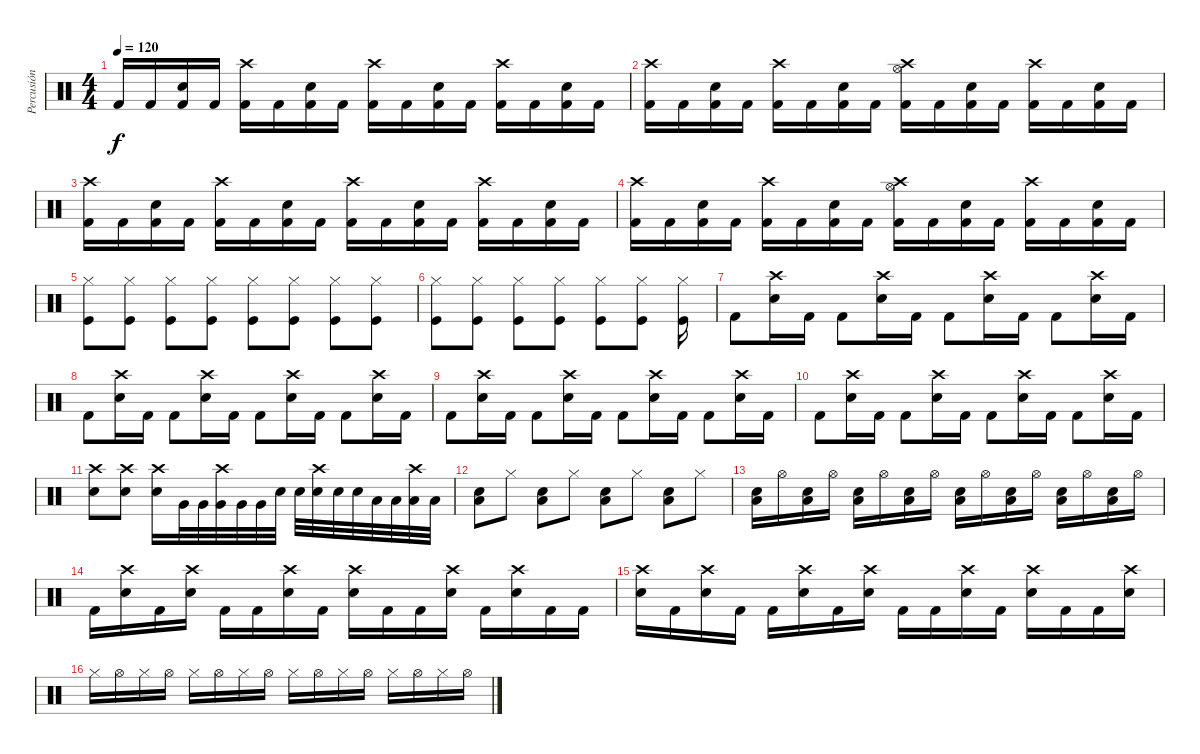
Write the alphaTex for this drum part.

\track ("Percusión" "Percusión") {instrument percussion}
\staff {score}
\articulation defaults
\ts (4 4)
\tempo 120
\clef neutral
\ks c "Kick (hit) 2".16{dy f} "Kick (hit) 2".16
("Kick (hit) 2" "Electric Snare (hit)").16 "Kick (hit) 2".16 ("Kick (hit) 2" "Crash high (hit)").16 "Kick (hit) 2".16 ("Kick (hit) 2" "Electric Snare (hit)").16 "Kick (hit) 2".16 ("Kick (hit) 2" "Crash high (hit)").16 "Kick (hit) 2".16 ("Kick (hit) 2" "Electric Snare (hit)").16 "Kick (hit) 2".16 ("Kick (hit) 2" "Crash high (hit)").16 "Kick (hit) 2".16 ("Kick (hit) 2" "Electric Snare (hit)").16 "Kick (hit) 2".16 |
("Kick (hit) 2" "Crash high (hit)").16 "Kick (hit) 2".16 ("Kick (hit) 2" "Electric Snare (hit)").16 "Kick (hit) 2".16 ("Kick (hit) 2" "Crash high (hit)").16 "Kick (hit) 2".16 ("Kick (hit) 2" "Electric Snare (hit)").16 "Kick (hit) 2".16 ("Kick (hit) 2" "Crash high (hit)" "Hi-Hat (open)").16 "Kick (hit) 2".16 ("Kick (hit) 2" "Electric Snare (hit)").16 "Kick (hit) 2".16 ("Kick (hit) 2" "Crash high (hit)").16 "Kick (hit) 2".16 ("Kick (hit) 2" "Electric Snare (hit)").16 "Kick (hit) 2".16 |
("Kick (hit) 2" "Crash high (hit)").16 "Kick (hit) 2".16 ("Kick (hit) 2" "Electric Snare (hit)").16 "Kick (hit) 2".16 ("Kick (hit) 2" "Crash high (hit)").16 "Kick (hit) 2".16 ("Kick (hit) 2" "Electric Snare (hit)").16 "Kick (hit) 2".16 ("Kick (hit) 2" "Crash high (hit)").16 "Kick (hit) 2".16 ("Kick (hit) 2" "Electric Snare (hit)").16 "Kick (hit) 2".16 ("Kick (hit) 2" "Crash high (hit)").16 "Kick (hit) 2".16 ("Kick (hit) 2" "Electric Snare (hit)").16 "Kick (hit) 2".16 |
("Kick (hit) 2" "Crash high (hit)").16 "Kick (hit) 2".16 ("Kick (hit) 2" "Electric Snare (hit)").16 "Kick (hit) 2".16 ("Kick (hit) 2" "Crash high (hit)").16 "Kick (hit) 2".16 ("Kick (hit) 2" "Electric Snare (hit)").16 "Kick (hit) 2".16 ("Kick (hit) 2" "Crash high (hit)" "Hi-Hat (open)").16 "Kick (hit) 2".16 ("Kick (hit) 2" "Electric Snare (hit)").16 "Kick (hit) 2".16 ("Kick (hit) 2" "Crash high (hit)").16 "Kick (hit) 2".16 ("Kick (hit) 2" "Electric Snare (hit)").16 "Kick (hit) 2".16 |
("Kick (hit)" "Hi-Hat (closed)").8 ("Kick (hit)" "Hi-Hat (closed)").8 ("Kick (hit)" "Hi-Hat (closed)").8 ("Kick (hit)" "Hi-Hat (closed)").8 ("Kick (hit)" "Hi-Hat (closed)").8 ("Kick (hit)" "Hi-Hat (closed)").8 ("Kick (hit)" "Hi-Hat (closed)").8 ("Kick (hit)" "Hi-Hat (closed)").8 |
("Kick (hit)" "Hi-Hat (closed)").8 ("Kick (hit)" "Hi-Hat (closed)").8 ("Kick (hit)" "Hi-Hat (closed)").8 ("Kick (hit)" "Hi-Hat (closed)").8 ("Kick (hit)" "Hi-Hat (closed)").8 ("Kick (hit)" "Hi-Hat (closed)").8 ("Kick (hit)" "Hi-Hat (closed)").16 |
"Kick (hit) 2".8 ("Electric Snare (hit)" "Crash high (hit)").16 "Kick (hit) 2".16 "Kick (hit) 2".8 ("Electric Snare (hit)" "Crash high (hit)").16 "Kick (hit) 2".16 "Kick (hit) 2".8 ("Electric Snare (hit)" "Crash high (hit)").16 "Kick (hit) 2".16 "Kick (hit) 2".8 ("Electric Snare (hit)" "Crash high (hit)").16 "Kick (hit) 2".16 |
"Kick (hit) 2".8 ("Electric Snare (hit)" "Crash high (hit)").16 "Kick (hit) 2".16 "Kick (hit) 2".8 ("Electric Snare (hit)" "Crash high (hit)").16 "Kick (hit) 2".16 "Kick (hit) 2".8 ("Electric Snare (hit)" "Crash high (hit)").16 "Kick (hit) 2".16 "Kick (hit) 2".8 ("Electric Snare (hit)" "Crash high (hit)").16 "Kick (hit) 2".16 |
"Kick (hit) 2".8 ("Electric Snare (hit)" "Crash high (hit)").16 "Kick (hit) 2".16 "Kick (hit) 2".8 ("Electric Snare (hit)" "Crash high (hit)").16 "Kick (hit) 2".16 "Kick (hit) 2".8 ("Electric Snare (hit)" "Crash high (hit)").16 "Kick (hit) 2".16 "Kick (hit) 2".8 ("Electric Snare (hit)" "Crash high (hit)").16 "Kick (hit) 2".16 |
"Kick (hit) 2".8 ("Electric Snare (hit)" "Crash high (hit)").16 "Kick (hit) 2".16 "Kick (hit) 2".8 ("Electric Snare (hit)" "Crash high (hit)").16 "Kick (hit) 2".16 "Kick (hit) 2".8 ("Electric Snare (hit)" "Crash high (hit)").16 "Kick (hit) 2".16 "Kick (hit) 2".8 ("Electric Snare (hit)" "Crash high (hit)").16 "Kick (hit) 2".16 |
("Electric Snare (hit)" "Crash high (hit)").8 ("Electric Snare (hit)" "Crash high (hit)").8 ("Electric Snare (hit)" "Crash high (hit)").16 "Very Low Tom (hit)".32 "Very Low Tom (hit)".32 ("Very Low Tom (hit)" "Crash high (hit)").32 "Very Low Tom (hit)".32 "Very Low Tom (hit)".32 "Electric Snare (hit)".32 "Electric Snare (hit)".32 ("Electric Snare (hit)" "Crash high (hit)").32 "Electric Snare (hit)".32 "Electric Snare (hit)".32 "Low Floor Tom (hit)".32 "Low Floor Tom (hit)".32 ("Low Floor Tom (hit)" "Crash high (hit)").32 "Low Floor Tom (hit)".32 |
("Low Floor Tom (hit)" "Electric Snare (hit)").8 "Hi-Hat (closed)".8 ("Low Floor Tom (hit)" "Electric Snare (hit)").8 "Hi-Hat (closed)".8 ("Low Floor Tom (hit)" "Electric Snare (hit)").8 "Hi-Hat (closed)".8 ("Low Floor Tom (hit)" "Electric Snare (hit)").8 "Hi-Hat (closed)".8 |
("Low Floor Tom (hit)" "Electric Snare (hit)").16 "Hi-Hat (open)".16 ("Low Floor Tom (hit)" "Electric Snare (hit)").16 "Hi-Hat (open)".16 ("Low Floor Tom (hit)" "Electric Snare (hit)").16 "Hi-Hat (open)".16 ("Low Floor Tom (hit)" "Electric Snare (hit)").16 "Hi-Hat (open)".16 ("Low Floor Tom (hit)" "Electric Snare (hit)").16 "Hi-Hat (open)".16 ("Low Floor Tom (hit)" "Electric Snare (hit)").16 "Hi-Hat (open)".16 ("Low Floor Tom (hit)" "Electric Snare (hit)").16 "Hi-Hat (open)".16 ("Low Floor Tom (hit)" "Electric Snare (hit)").16 "Hi-Hat (open)".16 |
"Kick (hit) 2".16 ("Electric Snare (hit)" "Crash high (hit)").16 "Kick (hit) 2".16 ("Electric Snare (hit)" "Crash high (hit)").16 "Kick (hit) 2".16 "Kick (hit) 2".16 ("Electric Snare (hit)" "Crash high (hit)").16 "Kick (hit) 2".16 ("Electric Snare (hit)" "Crash high (hit)").16 "Kick (hit) 2".16 "Kick (hit) 2".16 ("Electric Snare (hit)" "Crash high (hit)").16 "Kick (hit) 2".16 ("Electric Snare (hit)" "Crash high (hit)").16 "Kick (hit) 2".16 "Kick (hit) 2".16 |
("Electric Snare (hit)" "Crash high (hit)").16 "Kick (hit) 2".16 ("Electric Snare (hit)" "Crash high (hit)").16 "Kick (hit) 2".16 "Kick (hit) 2".16 ("Electric Snare (hit)" "Crash high (hit)").16 "Kick (hit) 2".16 ("Electric Snare (hit)" "Crash high (hit)").16 "Kick (hit) 2".16 "Kick (hit) 2".16 ("Electric Snare (hit)" "Crash high (hit)").16 "Kick (hit) 2".16 ("Electric Snare (hit)" "Crash high (hit)").16 "Kick (hit) 2".16 "Kick (hit) 2".16 ("Electric Snare (hit)" "Crash high (hit)").16 |
"Hi-Hat (closed)".16 "Hi-Hat (open)".16 "Hi-Hat (closed)".16 "Hi-Hat (open)".16 "Hi-Hat (closed)".16 "Hi-Hat (open)".16 "Hi-Hat (closed)".16 "Hi-Hat (open)".16 "Hi-Hat (closed)".16 "Hi-Hat (open)".16 "Hi-Hat (closed)".16 "Hi-Hat (open)".16 "Hi-Hat (closed)".16 "Hi-Hat (open)".16 "Hi-Hat (closed)".16 "Hi-Hat (open)".16
